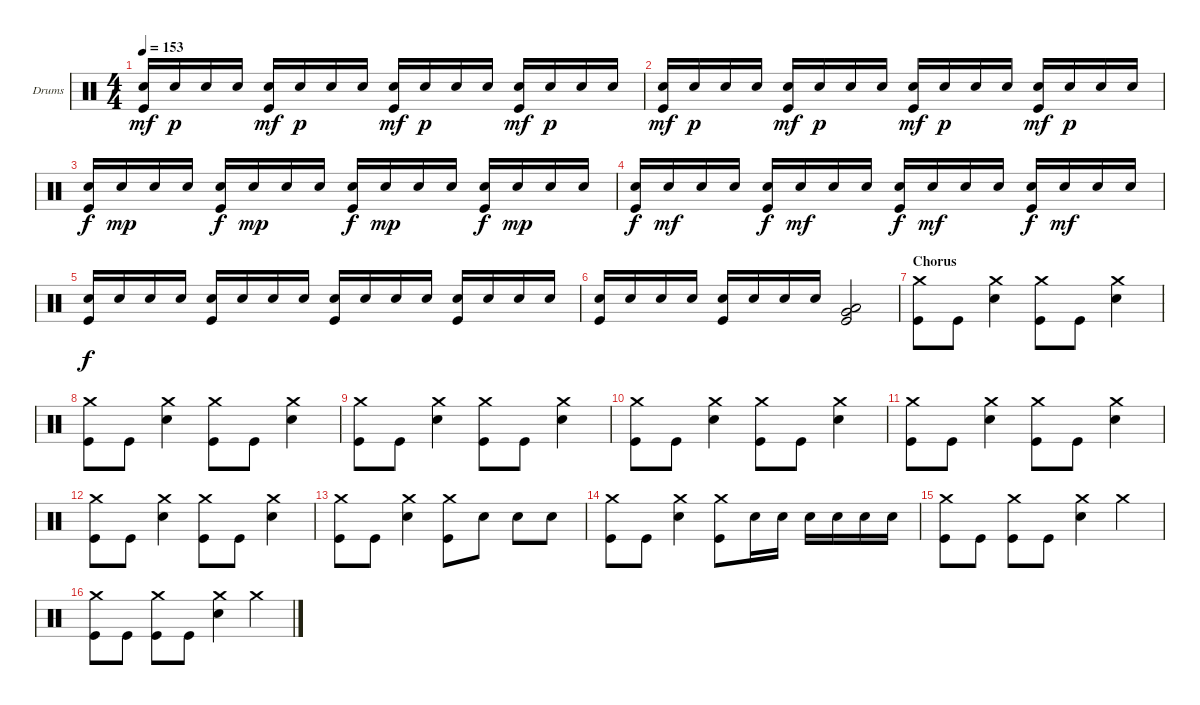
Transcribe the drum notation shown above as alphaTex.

\bracketExtendMode groupsimilarinstruments
\firstSystemTrackNameOrientation horizontal
\otherSystemsTrackNameOrientation horizontal
\track ("Drumkit" "Drums") {instrument percussion}
\staff {score}
\articulation defaults
\ts (4 4)
\tempo 153
\clef neutral
\ks c
("Snare (hit) 2" "Kick (hit)").16{dy mf} "Snare (hit) 2".16{dy p} "Snare (hit) 2".16 "Snare (hit) 2".16 ("Snare (hit) 2" "Kick (hit)").16{dy mf} "Snare (hit) 2".16{dy p} "Snare (hit) 2".16 "Snare (hit) 2".16 ("Snare (hit) 2" "Kick (hit)").16{dy mf} "Snare (hit) 2".16{dy p} "Snare (hit) 2".16 "Snare (hit) 2".16 ("Snare (hit) 2" "Kick (hit)").16{dy mf} "Snare (hit) 2".16{dy p} "Snare (hit) 2".16 "Snare (hit) 2".16 |
("Snare (hit) 2" "Kick (hit)").16{dy mf} "Snare (hit) 2".16{dy p} "Snare (hit) 2".16 "Snare (hit) 2".16 ("Snare (hit) 2" "Kick (hit)").16{dy mf} "Snare (hit) 2".16{dy p} "Snare (hit) 2".16 "Snare (hit) 2".16 ("Snare (hit) 2" "Kick (hit)").16{dy mf} "Snare (hit) 2".16{dy p} "Snare (hit) 2".16 "Snare (hit) 2".16 ("Snare (hit) 2" "Kick (hit)").16{dy mf} "Snare (hit) 2".16{dy p} "Snare (hit) 2".16 "Snare (hit) 2".16 |
("Snare (hit) 2" "Kick (hit)").16{dy f} "Snare (hit) 2".16{dy mp} "Snare (hit) 2".16 "Snare (hit) 2".16 ("Snare (hit) 2" "Kick (hit)").16{dy f} "Snare (hit) 2".16{dy mp} "Snare (hit) 2".16 "Snare (hit) 2".16 ("Snare (hit) 2" "Kick (hit)").16{dy f} "Snare (hit) 2".16{dy mp} "Snare (hit) 2".16 "Snare (hit) 2".16 ("Snare (hit) 2" "Kick (hit)").16{dy f} "Snare (hit) 2".16{dy mp} "Snare (hit) 2".16 "Snare (hit) 2".16 |
("Snare (hit) 2" "Kick (hit)").16{dy f} "Snare (hit) 2".16{dy mf} "Snare (hit) 2".16 "Snare (hit) 2".16 ("Snare (hit) 2" "Kick (hit)").16{dy f} "Snare (hit) 2".16{dy mf} "Snare (hit) 2".16 "Snare (hit) 2".16 ("Snare (hit) 2" "Kick (hit)").16{dy f} "Snare (hit) 2".16{dy mf} "Snare (hit) 2".16 "Snare (hit) 2".16 ("Snare (hit) 2" "Kick (hit)").16{dy f} "Snare (hit) 2".16{dy mf} "Snare (hit) 2".16 "Snare (hit) 2".16 |
("Snare (hit) 2" "Kick (hit)").16{dy f} "Snare (hit) 2".16 "Snare (hit) 2".16 "Snare (hit) 2".16 ("Snare (hit) 2" "Kick (hit)").16 "Snare (hit) 2".16 "Snare (hit) 2".16 "Snare (hit) 2".16 ("Snare (hit) 2" "Kick (hit)").16 "Snare (hit) 2".16 "Snare (hit) 2".16 "Snare (hit) 2".16 ("Snare (hit) 2" "Kick (hit)").16 "Snare (hit) 2".16 "Snare (hit) 2".16 "Snare (hit) 2".16 |
("Snare (hit) 2" "Kick (hit)").16 "Snare (hit) 2".16 "Snare (hit) 2".16 "Snare (hit) 2".16 ("Snare (hit) 2" "Kick (hit)").16 "Snare (hit) 2".16 "Snare (hit) 2".16 "Snare (hit) 2".16 ("Low Tom (hit)" "Very Low Tom (hit)" "Kick (hit)").2 |
\section ("" "Chorus")
("Crash medium (hit)" "Kick (hit)").8 "Kick (hit)".8 ("Crash medium (hit)" "Snare (hit) 2").4 ("Crash medium (hit)" "Kick (hit)").8 "Kick (hit)".8 ("Crash medium (hit)" "Snare (hit) 2").4 |
("Crash medium (hit)" "Kick (hit)").8 "Kick (hit)".8 ("Crash medium (hit)" "Snare (hit) 2").4 ("Crash medium (hit)" "Kick (hit)").8 "Kick (hit)".8 ("Crash medium (hit)" "Snare (hit) 2").4 |
("Crash medium (hit)" "Kick (hit)").8 "Kick (hit)".8 ("Crash medium (hit)" "Snare (hit) 2").4 ("Crash medium (hit)" "Kick (hit)").8 "Kick (hit)".8 ("Crash medium (hit)" "Snare (hit) 2").4 |
("Crash medium (hit)" "Kick (hit)").8 "Kick (hit)".8 ("Crash medium (hit)" "Snare (hit) 2").4 ("Crash medium (hit)" "Kick (hit)").8 "Kick (hit)".8 ("Crash medium (hit)" "Snare (hit) 2").4 |
("Crash medium (hit)" "Kick (hit)").8 "Kick (hit)".8 ("Crash medium (hit)" "Snare (hit) 2").4 ("Crash medium (hit)" "Kick (hit)").8 "Kick (hit)".8 ("Crash medium (hit)" "Snare (hit) 2").4 |
("Crash medium (hit)" "Kick (hit)").8 "Kick (hit)".8 ("Crash medium (hit)" "Snare (hit) 2").4 ("Crash medium (hit)" "Kick (hit)").8 "Kick (hit)".8 ("Crash medium (hit)" "Snare (hit) 2").4 |
("Crash medium (hit)" "Kick (hit)").8 "Kick (hit)".8 ("Crash medium (hit)" "Snare (hit) 2").4 ("Crash medium (hit)" "Kick (hit)").8 "Snare (hit) 2".8 "Snare (hit) 2".8 "Snare (hit) 2".8 |
("Crash medium (hit)" "Kick (hit)").8 "Kick (hit)".8 ("Crash medium (hit)" "Snare (hit) 2").4 ("Crash medium (hit)" "Kick (hit)").8 "Snare (hit) 2".16 "Snare (hit) 2".16 "Snare (hit) 2".16 "Snare (hit) 2".16 "Snare (hit) 2".16 "Snare (hit) 2".16 |
("Crash medium (hit)" "Kick (hit)").8 "Kick (hit)".8 ("Crash medium (hit)" "Kick (hit)").8 "Kick (hit)".8 ("Crash medium (hit)" "Snare (hit) 2").4 "Crash medium (hit)".4 |
("Crash medium (hit)" "Kick (hit)").8 "Kick (hit)".8 ("Crash medium (hit)" "Kick (hit)").8 "Kick (hit)".8 ("Crash medium (hit)" "Snare (hit) 2").4 "Crash medium (hit)".4
